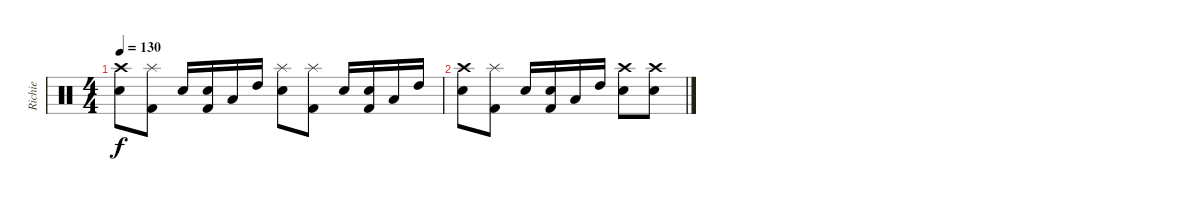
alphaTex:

\track ("Richie" "Richie") {instrument percussion}
\staff {score}
\articulation defaults
\ts (4 4)
\tempo 130
\clef neutral
\ks c
("Crash high (hit)" "Snare (hit) 2").8{dy f} ("Splash (hit)" "Kick (hit) 2").8 "Electric Snare (hit)".16 ("Electric Snare (hit)" "Kick (hit) 2").16 "Low Tom (hit)".16 "High Tom (hit)".16 ("Splash (hit)" "Snare (hit) 2").8 ("Splash (hit)" "Kick (hit) 2").8 "Electric Snare (hit)".16 ("Electric Snare (hit)" "Kick (hit) 2").16 "Low Tom (hit)".16 "High Tom (hit)".16 |
("Crash high (hit)" "Snare (hit) 2").8 ("Splash (hit)" "Kick (hit) 2").8 "Electric Snare (hit)".16 ("Electric Snare (hit)" "Kick (hit) 2").16 "Low Tom (hit)".16 "High Tom (hit)".16 ("Crash high (hit)" "Snare (hit) 2").8 ("Crash high (hit)" "Snare (hit) 2").8
